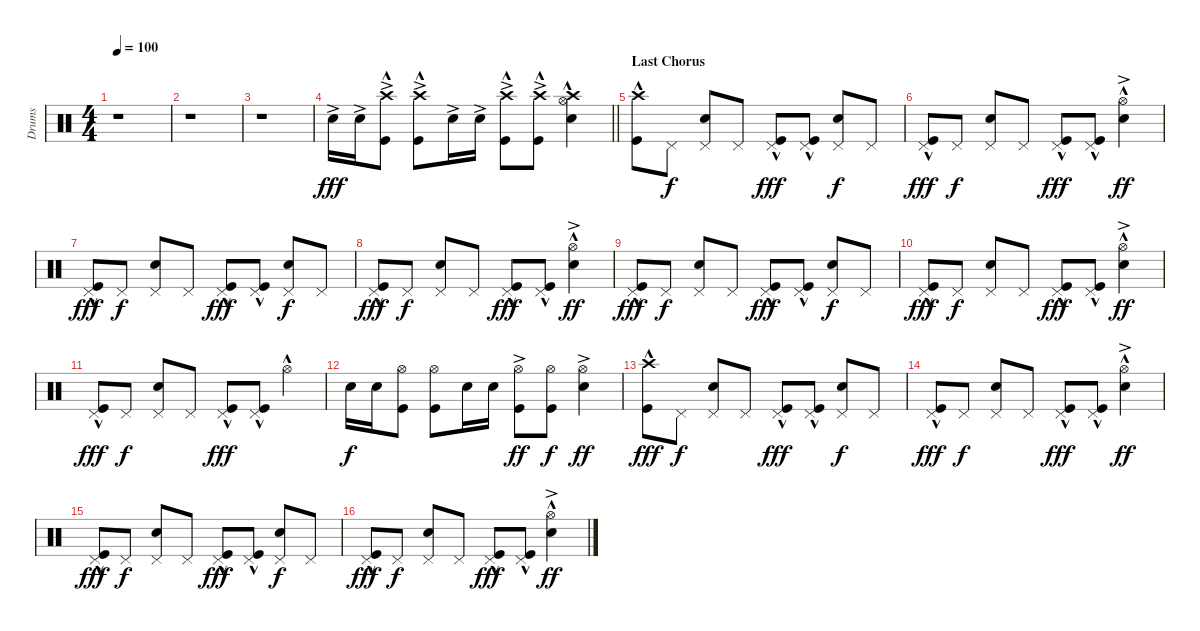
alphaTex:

\track ("Drums" "Drums") {instrument percussion}
\staff {score}
\articulation defaults
\ts (4 4)
\tempo 100
\clef neutral
\ks c
r.1{dy fff} |
r.1 |
r.1 |
\barLineRight lightlight "Snare (hit) 2"{ac}.16 "Snare (hit) 2"{ac}.16
("Crash high (hit)"{ac} "Kick (hit)"{hac}).8 ("Crash high (hit)"{ac} "Kick (hit)"{hac}).8 "Snare (hit) 2"{ac}.16 "Snare (hit) 2"{ac}.16 ("Crash high (hit)"{ac} "Kick (hit)"{hac}).8 ("Crash high (hit)"{ac} "Kick (hit)"{hac}).8 ("Crash high (hit)"{hac} "Hi-Hat (open)"{hac} "Snare (hit) 2"{hac}).4 |
\section ("" "Last Chorus")
("Crash high (hit)" "Kick (hit)"{hac}).8 "Pedal Hi-Hat (hit)".8{dy f} ("Pedal Hi-Hat (hit)" "Snare (hit) 2").8 "Pedal Hi-Hat (hit)".8 ("Pedal Hi-Hat (hit)" "Kick (hit)"{hac}).8{dy fff} ("Pedal Hi-Hat (hit)" "Kick (hit)"{hac}).8 ("Pedal Hi-Hat (hit)" "Snare (hit) 2").8{dy f} "Pedal Hi-Hat (hit)".8 |
("Pedal Hi-Hat (hit)" "Kick (hit)"{hac}).8{dy fff} "Pedal Hi-Hat (hit)".8{dy f} ("Pedal Hi-Hat (hit)" "Snare (hit) 2").8 "Pedal Hi-Hat (hit)".8 ("Pedal Hi-Hat (hit)" "Kick (hit)"{hac}).8{dy fff} ("Pedal Hi-Hat (hit)" "Kick (hit)"{hac}).8 ("Hi-Hat (open)"{hac} "Snare (hit) 2"{ac}).4{dy ff} |
("Pedal Hi-Hat (hit)" "Kick (hit)"{hac}).8{dy fff} "Pedal Hi-Hat (hit)".8{dy f} ("Pedal Hi-Hat (hit)" "Snare (hit) 2").8 "Pedal Hi-Hat (hit)".8 ("Pedal Hi-Hat (hit)" "Kick (hit)"{hac}).8{dy fff} ("Pedal Hi-Hat (hit)" "Kick (hit)"{hac}).8 ("Pedal Hi-Hat (hit)" "Snare (hit) 2").8{dy f} "Pedal Hi-Hat (hit)".8 |
("Pedal Hi-Hat (hit)" "Kick (hit)"{hac}).8{dy fff} "Pedal Hi-Hat (hit)".8{dy f} ("Pedal Hi-Hat (hit)" "Snare (hit) 2").8 "Pedal Hi-Hat (hit)".8 ("Pedal Hi-Hat (hit)" "Kick (hit)"{hac}).8{dy fff} ("Pedal Hi-Hat (hit)" "Kick (hit)"{hac}).8 ("Hi-Hat (open)"{hac} "Snare (hit) 2"{ac}).4{dy ff} |
("Pedal Hi-Hat (hit)" "Kick (hit)"{hac}).8{dy fff} "Pedal Hi-Hat (hit)".8{dy f} ("Pedal Hi-Hat (hit)" "Snare (hit) 2").8 "Pedal Hi-Hat (hit)".8 ("Pedal Hi-Hat (hit)" "Kick (hit)"{hac}).8{dy fff} ("Pedal Hi-Hat (hit)" "Kick (hit)"{hac}).8 ("Pedal Hi-Hat (hit)" "Snare (hit) 2").8{dy f} "Pedal Hi-Hat (hit)".8 |
("Pedal Hi-Hat (hit)" "Kick (hit)"{hac}).8{dy fff} "Pedal Hi-Hat (hit)".8{dy f} ("Pedal Hi-Hat (hit)" "Snare (hit) 2").8 "Pedal Hi-Hat (hit)".8 ("Pedal Hi-Hat (hit)" "Kick (hit)"{hac}).8{dy fff} ("Pedal Hi-Hat (hit)" "Kick (hit)"{hac}).8 ("Hi-Hat (open)"{hac} "Snare (hit) 2"{ac}).4{dy ff} |
("Pedal Hi-Hat (hit)" "Kick (hit)"{hac}).8{dy fff} "Pedal Hi-Hat (hit)".8{dy f} ("Pedal Hi-Hat (hit)" "Snare (hit) 2").8 "Pedal Hi-Hat (hit)".8 ("Pedal Hi-Hat (hit)" "Kick (hit)"{hac}).8{dy fff} ("Pedal Hi-Hat (hit)" "Kick (hit)"{hac}).8 "Hi-Hat (open)"{hac}.4 |
"Snare (hit) 2".16{dy f} "Snare (hit) 2".16 ("Hi-Hat (open)" "Kick (hit)").8 ("Hi-Hat (open)" "Kick (hit)").8 "Snare (hit) 2".16 "Snare (hit) 2".16 ("Hi-Hat (open)"{ac} "Kick (hit)").8{dy ff} ("Hi-Hat (open)" "Kick (hit)").8{dy f} ("Hi-Hat (open)"{ac} "Snare (hit) 2"{ac}).4{dy ff} |
("Crash high (hit)" "Kick (hit)"{hac}).8{dy fff} "Pedal Hi-Hat (hit)".8{dy f} ("Pedal Hi-Hat (hit)" "Snare (hit) 2").8 "Pedal Hi-Hat (hit)".8 ("Pedal Hi-Hat (hit)" "Kick (hit)"{hac}).8{dy fff} ("Pedal Hi-Hat (hit)" "Kick (hit)"{hac}).8 ("Pedal Hi-Hat (hit)" "Snare (hit) 2").8{dy f} "Pedal Hi-Hat (hit)".8 |
("Pedal Hi-Hat (hit)" "Kick (hit)"{hac}).8{dy fff} "Pedal Hi-Hat (hit)".8{dy f} ("Pedal Hi-Hat (hit)" "Snare (hit) 2").8 "Pedal Hi-Hat (hit)".8 ("Pedal Hi-Hat (hit)" "Kick (hit)"{hac}).8{dy fff} ("Pedal Hi-Hat (hit)" "Kick (hit)"{hac}).8 ("Hi-Hat (open)"{hac} "Snare (hit) 2"{ac}).4{dy ff} |
("Pedal Hi-Hat (hit)" "Kick (hit)"{hac}).8{dy fff} "Pedal Hi-Hat (hit)".8{dy f} ("Pedal Hi-Hat (hit)" "Snare (hit) 2").8 "Pedal Hi-Hat (hit)".8 ("Pedal Hi-Hat (hit)" "Kick (hit)"{hac}).8{dy fff} ("Pedal Hi-Hat (hit)" "Kick (hit)"{hac}).8 ("Pedal Hi-Hat (hit)" "Snare (hit) 2").8{dy f} "Pedal Hi-Hat (hit)".8 |
("Pedal Hi-Hat (hit)" "Kick (hit)"{hac}).8{dy fff} "Pedal Hi-Hat (hit)".8{dy f} ("Pedal Hi-Hat (hit)" "Snare (hit) 2").8 "Pedal Hi-Hat (hit)".8 ("Pedal Hi-Hat (hit)" "Kick (hit)"{hac}).8{dy fff} ("Pedal Hi-Hat (hit)" "Kick (hit)"{hac}).8 ("Hi-Hat (open)"{hac} "Snare (hit) 2"{ac}).4{dy ff}
